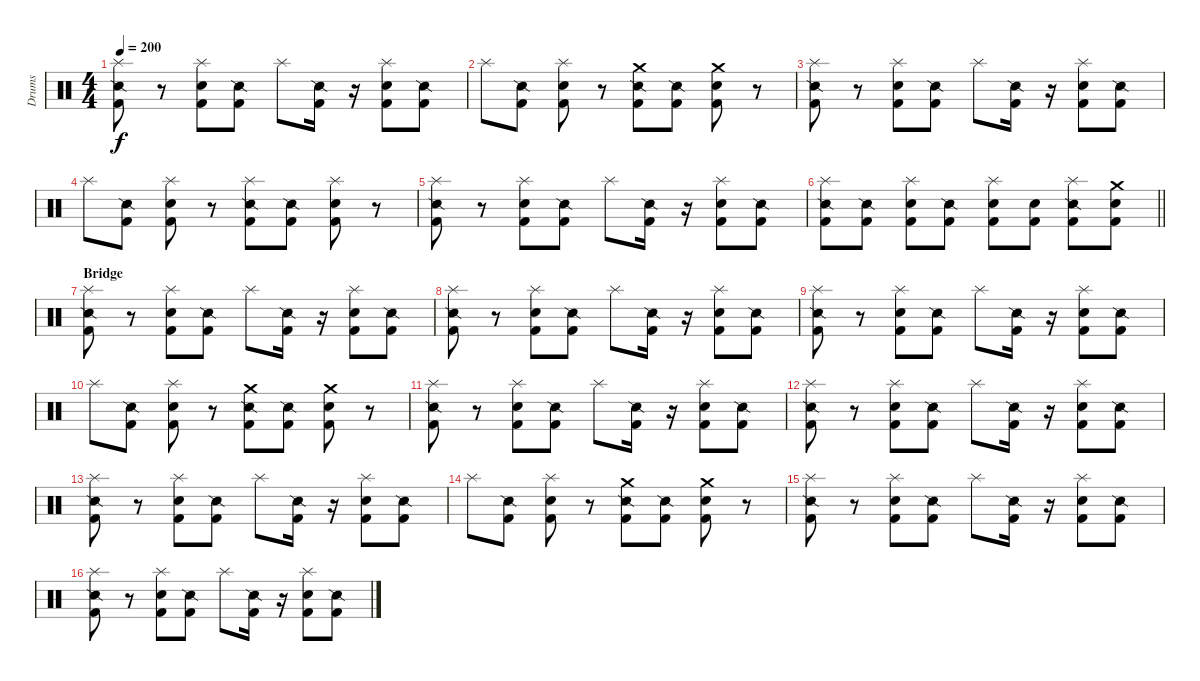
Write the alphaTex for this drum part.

\track ("Drums" "Drums") {instrument percussion}
\staff {score}
\articulation defaults
\ts (4 4)
\tempo 200
\clef neutral
\ks c
("Splash (hit)" "Snare (side stick) 2" "Kick (hit) 2").8{dy f} r.8 ("Splash (hit)" "Snare (hit) 2" "Kick (hit) 2").8 ("Snare (side stick) 2" "Kick (hit) 2").8 "Splash (hit)".8 ("Snare (side stick) 2" "Kick (hit) 2").16 r.16 ("Splash (hit)" "Snare (hit) 2" "Kick (hit) 2").8 ("Snare (side stick) 2" "Kick (hit) 2").8 |
"Splash (hit)".8 ("Snare (side stick) 2" "Kick (hit) 2").8 ("Splash (hit)" "Snare (hit) 2" "Kick (hit) 2").8 r.8 ("Crash medium (hit)" "Snare (side stick) 2" "Kick (hit) 2").8 ("Snare (side stick) 2" "Kick (hit) 2").8 ("Crash medium (hit)" "Snare (hit) 2" "Kick (hit) 2").8 r.8 |
("Splash (hit)" "Snare (side stick) 2" "Kick (hit) 2").8 r.8 ("Splash (hit)" "Snare (hit) 2" "Kick (hit) 2").8 ("Snare (side stick) 2" "Kick (hit) 2").8 "Splash (hit)".8 ("Snare (side stick) 2" "Kick (hit) 2").16 r.16 ("Splash (hit)" "Snare (hit) 2" "Kick (hit) 2").8 ("Snare (side stick) 2" "Kick (hit) 2").8 |
"Splash (hit)".8 ("Snare (side stick) 2" "Kick (hit) 2").8 ("Splash (hit)" "Snare (hit) 2" "Kick (hit) 2").8 r.8 ("Splash (hit)" "Snare (side stick) 2" "Kick (hit) 2").8 ("Snare (side stick) 2" "Kick (hit) 2").8 ("Splash (hit)" "Snare (hit) 2" "Kick (hit) 2").8 r.8 |
("Splash (hit)" "Snare (side stick) 2" "Kick (hit) 2").8 r.8 ("Splash (hit)" "Snare (hit) 2" "Kick (hit) 2").8 ("Snare (side stick) 2" "Kick (hit) 2").8 "Splash (hit)".8 ("Snare (side stick) 2" "Kick (hit) 2").16 r.16 ("Splash (hit)" "Snare (hit) 2" "Kick (hit) 2").8 ("Snare (side stick) 2" "Kick (hit) 2").8 |
\barLineRight lightlight
("Splash (hit)" "Snare (side stick) 2" "Kick (hit) 2").8 ("Snare (side stick) 2" "Kick (hit) 2").8 ("Splash (hit)" "Kick (hit) 2" "Snare (hit) 2").8 ("Snare (side stick) 2" "Kick (hit) 2").8 ("Splash (hit)" "Snare (hit) 2" "Kick (hit) 2").8 ("Snare (hit) 2" "Kick (hit) 2").8 ("Splash (hit)" "Snare (side stick) 2" "Kick (hit) 2").8 ("Crash medium (hit)" "Snare (hit) 2" "Kick (hit) 2").8 |
\section ("" "Bridge")
("Splash (hit)" "Snare (side stick) 2" "Kick (hit) 2").8 r.8 ("Splash (hit)" "Snare (hit) 2" "Kick (hit) 2").8 ("Snare (side stick) 2" "Kick (hit) 2").8 "Splash (hit)".8 ("Snare (side stick) 2" "Kick (hit) 2").16 r.16 ("Splash (hit)" "Snare (hit) 2" "Kick (hit) 2").8 ("Snare (side stick) 2" "Kick (hit) 2").8 |
("Splash (hit)" "Snare (side stick) 2" "Kick (hit) 2").8 r.8 ("Splash (hit)" "Snare (hit) 2" "Kick (hit) 2").8 ("Snare (side stick) 2" "Kick (hit) 2").8 "Splash (hit)".8 ("Snare (side stick) 2" "Kick (hit) 2").16 r.16 ("Splash (hit)" "Snare (hit) 2" "Kick (hit) 2").8 ("Snare (side stick) 2" "Kick (hit) 2").8 |
("Splash (hit)" "Snare (side stick) 2" "Kick (hit) 2").8 r.8 ("Splash (hit)" "Snare (hit) 2" "Kick (hit) 2").8 ("Snare (side stick) 2" "Kick (hit) 2").8 "Splash (hit)".8 ("Snare (side stick) 2" "Kick (hit) 2").16 r.16 ("Splash (hit)" "Snare (hit) 2" "Kick (hit) 2").8 ("Snare (side stick) 2" "Kick (hit) 2").8 |
"Splash (hit)".8 ("Snare (side stick) 2" "Kick (hit) 2").8 ("Splash (hit)" "Snare (hit) 2" "Kick (hit) 2").8 r.8 ("Crash medium (hit)" "Snare (side stick) 2" "Kick (hit) 2").8 ("Snare (side stick) 2" "Kick (hit) 2").8 ("Crash medium (hit)" "Snare (hit) 2" "Kick (hit) 2").8 r.8 |
("Splash (hit)" "Snare (side stick) 2" "Kick (hit) 2").8 r.8 ("Splash (hit)" "Snare (hit) 2" "Kick (hit) 2").8 ("Snare (side stick) 2" "Kick (hit) 2").8 "Splash (hit)".8 ("Snare (side stick) 2" "Kick (hit) 2").16 r.16 ("Splash (hit)" "Snare (hit) 2" "Kick (hit) 2").8 ("Snare (side stick) 2" "Kick (hit) 2").8 |
("Splash (hit)" "Snare (side stick) 2" "Kick (hit) 2").8 r.8 ("Splash (hit)" "Snare (hit) 2" "Kick (hit) 2").8 ("Snare (side stick) 2" "Kick (hit) 2").8 "Splash (hit)".8 ("Snare (side stick) 2" "Kick (hit) 2").16 r.16 ("Splash (hit)" "Snare (hit) 2" "Kick (hit) 2").8 ("Snare (side stick) 2" "Kick (hit) 2").8 |
("Splash (hit)" "Snare (side stick) 2" "Kick (hit) 2").8 r.8 ("Splash (hit)" "Snare (hit) 2" "Kick (hit) 2").8 ("Snare (side stick) 2" "Kick (hit) 2").8 "Splash (hit)".8 ("Snare (side stick) 2" "Kick (hit) 2").16 r.16 ("Splash (hit)" "Snare (hit) 2" "Kick (hit) 2").8 ("Snare (side stick) 2" "Kick (hit) 2").8 |
"Splash (hit)".8 ("Snare (side stick) 2" "Kick (hit) 2").8 ("Splash (hit)" "Snare (hit) 2" "Kick (hit) 2").8 r.8 ("Crash medium (hit)" "Snare (side stick) 2" "Kick (hit) 2").8 ("Snare (side stick) 2" "Kick (hit) 2").8 ("Crash medium (hit)" "Snare (hit) 2" "Kick (hit) 2").8 r.8 |
("Splash (hit)" "Snare (side stick) 2" "Kick (hit) 2").8 r.8 ("Splash (hit)" "Snare (hit) 2" "Kick (hit) 2").8 ("Snare (side stick) 2" "Kick (hit) 2").8 "Splash (hit)".8 ("Snare (side stick) 2" "Kick (hit) 2").16 r.16 ("Splash (hit)" "Snare (hit) 2" "Kick (hit) 2").8 ("Snare (side stick) 2" "Kick (hit) 2").8 |
("Splash (hit)" "Snare (side stick) 2" "Kick (hit) 2").8 r.8 ("Splash (hit)" "Snare (hit) 2" "Kick (hit) 2").8 ("Snare (side stick) 2" "Kick (hit) 2").8 "Splash (hit)".8 ("Snare (side stick) 2" "Kick (hit) 2").16 r.16 ("Splash (hit)" "Snare (hit) 2" "Kick (hit) 2").8 ("Snare (side stick) 2" "Kick (hit) 2").8
